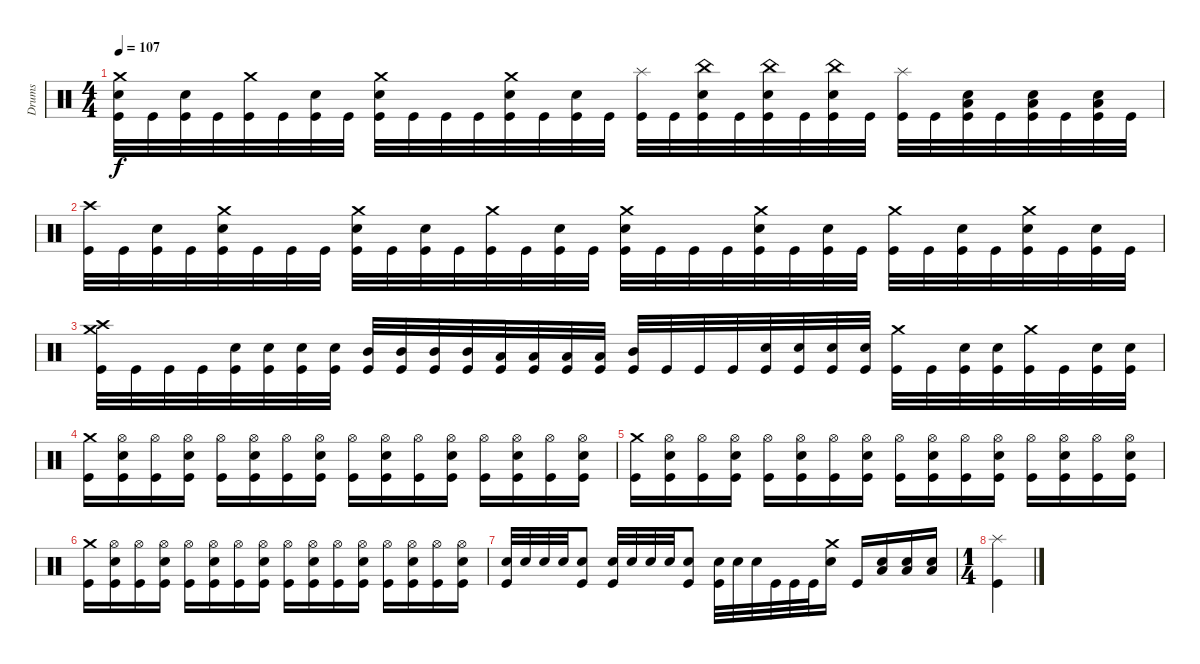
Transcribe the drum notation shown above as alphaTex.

\track ("Drums" "Drums") {instrument percussion}
\staff {score}
\articulation defaults
\ts (4 4)
\tempo 107
\clef neutral
\ks c
("Crash medium (hit)" "Electric Snare (hit)" "Kick (hit)").32{dy f} "Kick (hit)".32 ("Electric Snare (hit)" "Kick (hit)").32 "Kick (hit)".32 ("Crash medium (hit)" "Kick (hit)").32 "Kick (hit)".32 ("Electric Snare (hit)" "Kick (hit)").32 "Kick (hit)".32 ("Crash medium (hit)" "Electric Snare (hit)" "Kick (hit)").32 "Kick (hit)".32 "Kick (hit)".32 "Kick (hit)".32 ("Crash medium (hit)" "Electric Snare (hit)" "Kick (hit)").32 "Kick (hit)".32 ("Electric Snare (hit)" "Kick (hit)").32 "Kick (hit)".32 ("Splash (hit)" "Kick (hit)").32 "Kick (hit)".32 ("China (hit)" "Electric Snare (hit)" "Kick (hit)").32 "Kick (hit)".32 ("China (hit)" "Electric Snare (hit)" "Kick (hit)").32 "Kick (hit)".32 ("China (hit)" "Electric Snare (hit)" "Kick (hit)").32 "Kick (hit)".32 ("Splash (hit)" "Kick (hit)").32 "Kick (hit)".32 ("Low Floor Tom (hit)" "Electric Snare (hit)" "Kick (hit)").32 "Kick (hit)".32 ("Low Floor Tom (hit)" "Electric Snare (hit)" "Kick (hit)").32 "Kick (hit)".32 ("Low Floor Tom (hit)" "Electric Snare (hit)" "Kick (hit)").32 "Kick (hit)".32 |
("Crash high (hit)" "Kick (hit)").32 "Kick (hit)".32 ("Electric Snare (hit)" "Kick (hit)").32 "Kick (hit)".32 ("Crash medium (hit)" "Electric Snare (hit)" "Kick (hit)").32 "Kick (hit)".32 "Kick (hit)".32 "Kick (hit)".32 ("Crash medium (hit)" "Electric Snare (hit)" "Kick (hit)").32 "Kick (hit)".32 ("Electric Snare (hit)" "Kick (hit)").32 "Kick (hit)".32 ("Crash medium (hit)" "Kick (hit)").32 "Kick (hit)".32 ("Electric Snare (hit)" "Kick (hit)").32 "Kick (hit)".32 ("Crash medium (hit)" "Electric Snare (hit)" "Kick (hit)").32 "Kick (hit)".32 "Kick (hit)".32 "Kick (hit)".32 ("Crash medium (hit)" "Electric Snare (hit)" "Kick (hit)").32 "Kick (hit)".32 ("Electric Snare (hit)" "Kick (hit)").32 "Kick (hit)".32 ("Crash medium (hit)" "Kick (hit)").32 "Kick (hit)".32 ("Electric Snare (hit)" "Kick (hit)").32 "Kick (hit)".32 ("Crash medium (hit)" "Electric Snare (hit)" "Kick (hit)").32 "Kick (hit)".32 ("Electric Snare (hit)" "Kick (hit)").32 "Kick (hit)".32 |
("Crash medium (hit)" "Crash high (hit)" "Kick (hit)").32 "Kick (hit)".32 "Kick (hit)".32 "Kick (hit)".32 ("Electric Snare (hit)" "Kick (hit)").32 ("Electric Snare (hit)" "Kick (hit)").32 ("Electric Snare (hit)" "Kick (hit)").32 ("Electric Snare (hit)" "Kick (hit)").32 ("Mid Tom (hit)" "Kick (hit)").32 ("Mid Tom (hit)" "Kick (hit)").32 ("Mid Tom (hit)" "Kick (hit)").32 ("Mid Tom (hit)" "Kick (hit)").32 ("Low Tom (hit)" "Kick (hit)").32 ("Low Tom (hit)" "Kick (hit)").32 ("Low Tom (hit)" "Kick (hit)").32 ("Low Tom (hit)" "Kick (hit)").32 ("Mid Tom (hit)" "Kick (hit)").32 "Kick (hit)".32 "Kick (hit)".32 "Kick (hit)".32 ("Electric Snare (hit)" "Kick (hit)").32 ("Electric Snare (hit)" "Kick (hit)").32 ("Electric Snare (hit)" "Kick (hit)").32 ("Electric Snare (hit)" "Kick (hit)").32 ("Crash medium (hit)" "Kick (hit)").32 "Kick (hit)".32 ("Electric Snare (hit)" "Kick (hit)").32 ("Electric Snare (hit)" "Kick (hit)").32 ("Crash medium (hit)" "Kick (hit)").32 "Kick (hit)".32 ("Electric Snare (hit)" "Kick (hit)").32 ("Electric Snare (hit)" "Kick (hit)").32 |
("Crash medium (hit)" "Kick (hit)").16 ("Hi-Hat (open)" "Electric Snare (hit)" "Kick (hit)").16 ("Hi-Hat (open)" "Kick (hit)").16 ("Hi-Hat (open)" "Electric Snare (hit)" "Kick (hit)").16 ("Hi-Hat (open)" "Kick (hit)").16 ("Hi-Hat (open)" "Electric Snare (hit)" "Kick (hit)").16 ("Hi-Hat (open)" "Kick (hit)").16 ("Hi-Hat (open)" "Electric Snare (hit)" "Kick (hit)").16 ("Hi-Hat (open)" "Kick (hit)").16 ("Hi-Hat (open)" "Electric Snare (hit)" "Kick (hit)").16 ("Hi-Hat (open)" "Kick (hit)").16 ("Hi-Hat (open)" "Electric Snare (hit)" "Kick (hit)").16 ("Hi-Hat (open)" "Kick (hit)").16 ("Hi-Hat (open)" "Electric Snare (hit)" "Kick (hit)").16 ("Hi-Hat (open)" "Kick (hit)").16 ("Hi-Hat (open)" "Electric Snare (hit)" "Kick (hit)").16 |
("Crash medium (hit)" "Kick (hit)").16 ("Hi-Hat (open)" "Electric Snare (hit)" "Kick (hit)").16 ("Hi-Hat (open)" "Kick (hit)").16 ("Hi-Hat (open)" "Electric Snare (hit)" "Kick (hit)").16 ("Hi-Hat (open)" "Kick (hit)").16 ("Hi-Hat (open)" "Electric Snare (hit)" "Kick (hit)").16 ("Hi-Hat (open)" "Kick (hit)").16 ("Hi-Hat (open)" "Electric Snare (hit)" "Kick (hit)").16 ("Hi-Hat (open)" "Kick (hit)").16 ("Hi-Hat (open)" "Electric Snare (hit)" "Kick (hit)").16 ("Hi-Hat (open)" "Kick (hit)").16 ("Hi-Hat (open)" "Electric Snare (hit)" "Kick (hit)").16 ("Hi-Hat (open)" "Kick (hit)").16 ("Hi-Hat (open)" "Electric Snare (hit)" "Kick (hit)").16 ("Hi-Hat (open)" "Kick (hit)").16 ("Hi-Hat (open)" "Electric Snare (hit)" "Kick (hit)").16 |
("Crash medium (hit)" "Kick (hit)").16 ("Hi-Hat (open)" "Electric Snare (hit)" "Kick (hit)").16 ("Hi-Hat (open)" "Kick (hit)").16 ("Hi-Hat (open)" "Electric Snare (hit)" "Kick (hit)").16 ("Hi-Hat (open)" "Kick (hit)").16 ("Hi-Hat (open)" "Electric Snare (hit)" "Kick (hit)").16 ("Hi-Hat (open)" "Kick (hit)").16 ("Hi-Hat (open)" "Electric Snare (hit)" "Kick (hit)").16 ("Hi-Hat (open)" "Kick (hit)").16 ("Hi-Hat (open)" "Electric Snare (hit)" "Kick (hit)").16 ("Hi-Hat (open)" "Kick (hit)").16 ("Hi-Hat (open)" "Electric Snare (hit)" "Kick (hit)").16 ("Hi-Hat (open)" "Kick (hit)").16 ("Hi-Hat (open)" "Electric Snare (hit)" "Kick (hit)").16 ("Hi-Hat (open)" "Kick (hit)").16 ("Hi-Hat (open)" "Electric Snare (hit)" "Kick (hit)").16 |
("Electric Snare (hit)" "Kick (hit)").32 "Electric Snare (hit)".32 "Electric Snare (hit)".32 "Electric Snare (hit)".32 ("Electric Snare (hit)" "Kick (hit)").8 ("Electric Snare (hit)" "Kick (hit)").32 "Electric Snare (hit)".32 "Electric Snare (hit)".32 "Electric Snare (hit)".32 ("Electric Snare (hit)" "Kick (hit)").8 ("Electric Snare (hit)" "Kick (hit)").32 "Electric Snare (hit)".32 "Electric Snare (hit)".32 "Kick (hit)".32 "Kick (hit)".32 "Kick (hit)".32 ("Crash medium (hit)" "Electric Snare (hit)").16 "Kick (hit)".16 ("Electric Snare (hit)" "Low Floor Tom (hit)").16 ("Electric Snare (hit)" "Low Floor Tom (hit)").16 ("Electric Snare (hit)" "Low Floor Tom (hit)").16 |
\ts (1 4)
("Splash (hit)" "Kick (hit)").4
